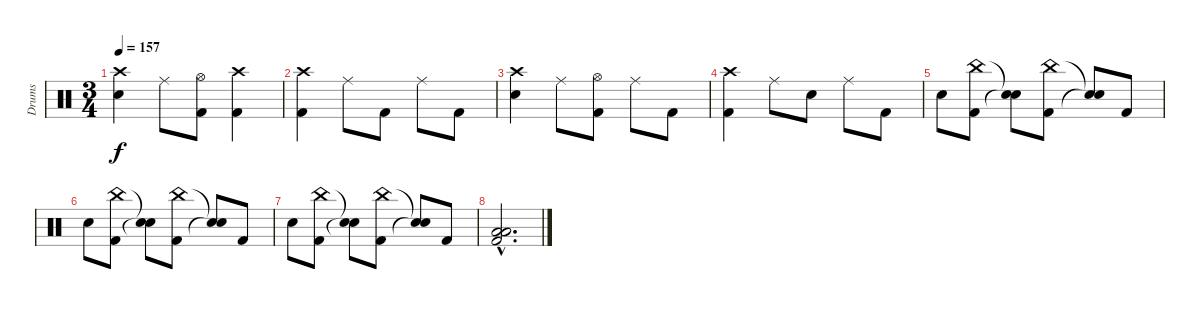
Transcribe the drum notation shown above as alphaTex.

\track ("Drums" "Drums") {instrument percussion}
\staff {score}
\articulation defaults
\ts (3 4)
\tempo 157
\clef neutral
\ks c
("Crash high (hit)" "Electric Snare (hit)").4{dy f} "Ride (middle)".8 ("Hi-Hat (open)" "Kick (hit) 2").8 ("Crash high (hit)" "Kick (hit) 2").4 |
("Crash high (hit)" "Kick (hit) 2").4 "Ride (middle)".8 "Kick (hit) 2".8 "Ride (middle)".8 "Kick (hit) 2".8 |
("Crash high (hit)" "Electric Snare (hit)").4 "Ride (middle)".8 ("Hi-Hat (open)" "Kick (hit) 2").8 "Ride (middle)".8 "Kick (hit) 2".8 |
("Crash high (hit)" "Kick (hit) 2").4 "Ride (middle)".8 "Electric Snare (hit)".8 "Ride (middle)".8 "Kick (hit) 2".8 |
"Electric Snare (hit)".8 ("China (hit)" "Kick (hit) 2").8 ("Snare (hit)"{t} "Snare (hit)"{t}).8 ("China (hit)" "Kick (hit) 2").8 ("Snare (hit)"{t} "Snare (hit)"{t}).8 "Kick (hit) 2".8 |
"Electric Snare (hit)".8 ("China (hit)" "Kick (hit) 2").8 ("Snare (hit)"{t} "Snare (hit)"{t}).8 ("China (hit)" "Kick (hit) 2").8 ("Snare (hit)"{t} "Snare (hit)"{t}).8 "Kick (hit) 2".8 |
"Electric Snare (hit)".8 ("China (hit)" "Kick (hit) 2").8 ("Snare (hit)"{t} "Snare (hit)"{t}).8 ("China (hit)" "Kick (hit) 2").8 ("Snare (hit)"{t} "Snare (hit)"{t}).8 "Kick (hit) 2".8 |
("Low Tom (hit)"{hac} "Low Floor Tom (hit)"{hac} "Kick (hit) 2"{hac}).2{d}
